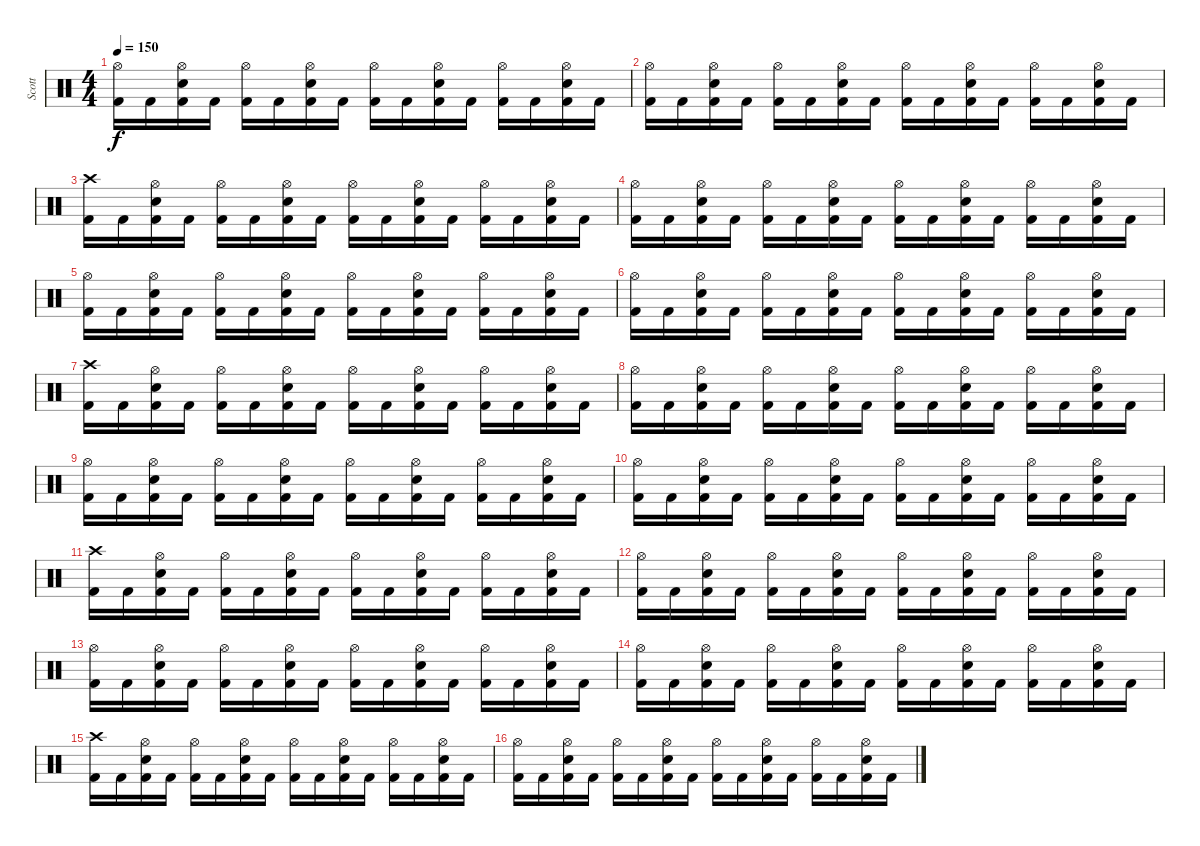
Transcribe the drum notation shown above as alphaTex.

\track ("Scott" "Scott") {instrument percussion}
\staff {score}
\articulation defaults
\ts (4 4)
\tempo 150
\clef neutral
\ks c
("Hi-Hat (open)" "Kick (hit) 2").16{dy f} "Kick (hit) 2".16 ("Hi-Hat (open)" "Snare (hit) 2" "Kick (hit) 2").16 "Kick (hit) 2".16 ("Hi-Hat (open)" "Kick (hit) 2").16 "Kick (hit) 2".16 ("Hi-Hat (open)" "Snare (hit) 2" "Kick (hit) 2").16 "Kick (hit) 2".16 ("Hi-Hat (open)" "Kick (hit) 2").16 "Kick (hit) 2".16 ("Hi-Hat (open)" "Snare (hit) 2" "Kick (hit) 2").16 "Kick (hit) 2".16 ("Hi-Hat (open)" "Kick (hit) 2").16 "Kick (hit) 2".16 ("Hi-Hat (open)" "Snare (hit) 2" "Kick (hit) 2").16 "Kick (hit) 2".16 |
("Hi-Hat (open)" "Kick (hit) 2").16 "Kick (hit) 2".16 ("Hi-Hat (open)" "Snare (hit) 2" "Kick (hit) 2").16 "Kick (hit) 2".16 ("Hi-Hat (open)" "Kick (hit) 2").16 "Kick (hit) 2".16 ("Hi-Hat (open)" "Snare (hit) 2" "Kick (hit) 2").16 "Kick (hit) 2".16 ("Hi-Hat (open)" "Kick (hit) 2").16 "Kick (hit) 2".16 ("Hi-Hat (open)" "Snare (hit) 2" "Kick (hit) 2").16 "Kick (hit) 2".16 ("Hi-Hat (open)" "Kick (hit) 2").16 "Kick (hit) 2".16 ("Hi-Hat (open)" "Snare (hit) 2" "Kick (hit) 2").16 "Kick (hit) 2".16 |
("Crash high (hit)" "Kick (hit) 2").16 "Kick (hit) 2".16 ("Hi-Hat (open)" "Snare (hit) 2" "Kick (hit) 2").16 "Kick (hit) 2".16 ("Hi-Hat (open)" "Kick (hit) 2").16 "Kick (hit) 2".16 ("Hi-Hat (open)" "Snare (hit) 2" "Kick (hit) 2").16 "Kick (hit) 2".16 ("Hi-Hat (open)" "Kick (hit) 2").16 "Kick (hit) 2".16 ("Hi-Hat (open)" "Snare (hit) 2" "Kick (hit) 2").16 "Kick (hit) 2".16 ("Hi-Hat (open)" "Kick (hit) 2").16 "Kick (hit) 2".16 ("Hi-Hat (open)" "Snare (hit) 2" "Kick (hit) 2").16 "Kick (hit) 2".16 |
("Hi-Hat (open)" "Kick (hit) 2").16 "Kick (hit) 2".16 ("Hi-Hat (open)" "Snare (hit) 2" "Kick (hit) 2").16 "Kick (hit) 2".16 ("Hi-Hat (open)" "Kick (hit) 2").16 "Kick (hit) 2".16 ("Hi-Hat (open)" "Snare (hit) 2" "Kick (hit) 2").16 "Kick (hit) 2".16 ("Hi-Hat (open)" "Kick (hit) 2").16 "Kick (hit) 2".16 ("Hi-Hat (open)" "Snare (hit) 2" "Kick (hit) 2").16 "Kick (hit) 2".16 ("Hi-Hat (open)" "Kick (hit) 2").16 "Kick (hit) 2".16 ("Hi-Hat (open)" "Snare (hit) 2" "Kick (hit) 2").16 "Kick (hit) 2".16 |
("Hi-Hat (open)" "Kick (hit) 2").16 "Kick (hit) 2".16 ("Hi-Hat (open)" "Snare (hit) 2" "Kick (hit) 2").16 "Kick (hit) 2".16 ("Hi-Hat (open)" "Kick (hit) 2").16 "Kick (hit) 2".16 ("Hi-Hat (open)" "Snare (hit) 2" "Kick (hit) 2").16 "Kick (hit) 2".16 ("Hi-Hat (open)" "Kick (hit) 2").16 "Kick (hit) 2".16 ("Hi-Hat (open)" "Snare (hit) 2" "Kick (hit) 2").16 "Kick (hit) 2".16 ("Hi-Hat (open)" "Kick (hit) 2").16 "Kick (hit) 2".16 ("Hi-Hat (open)" "Snare (hit) 2" "Kick (hit) 2").16 "Kick (hit) 2".16 |
("Hi-Hat (open)" "Kick (hit) 2").16 "Kick (hit) 2".16 ("Hi-Hat (open)" "Snare (hit) 2" "Kick (hit) 2").16 "Kick (hit) 2".16 ("Hi-Hat (open)" "Kick (hit) 2").16 "Kick (hit) 2".16 ("Hi-Hat (open)" "Snare (hit) 2" "Kick (hit) 2").16 "Kick (hit) 2".16 ("Hi-Hat (open)" "Kick (hit) 2").16 "Kick (hit) 2".16 ("Hi-Hat (open)" "Snare (hit) 2" "Kick (hit) 2").16 "Kick (hit) 2".16 ("Hi-Hat (open)" "Kick (hit) 2").16 "Kick (hit) 2".16 ("Hi-Hat (open)" "Snare (hit) 2" "Kick (hit) 2").16 "Kick (hit) 2".16 |
("Crash high (hit)" "Kick (hit) 2").16 "Kick (hit) 2".16 ("Hi-Hat (open)" "Snare (hit) 2" "Kick (hit) 2").16 "Kick (hit) 2".16 ("Hi-Hat (open)" "Kick (hit) 2").16 "Kick (hit) 2".16 ("Hi-Hat (open)" "Snare (hit) 2" "Kick (hit) 2").16 "Kick (hit) 2".16 ("Hi-Hat (open)" "Kick (hit) 2").16 "Kick (hit) 2".16 ("Hi-Hat (open)" "Snare (hit) 2" "Kick (hit) 2").16 "Kick (hit) 2".16 ("Hi-Hat (open)" "Kick (hit) 2").16 "Kick (hit) 2".16 ("Hi-Hat (open)" "Snare (hit) 2" "Kick (hit) 2").16 "Kick (hit) 2".16 |
("Hi-Hat (open)" "Kick (hit) 2").16 "Kick (hit) 2".16 ("Hi-Hat (open)" "Snare (hit) 2" "Kick (hit) 2").16 "Kick (hit) 2".16 ("Hi-Hat (open)" "Kick (hit) 2").16 "Kick (hit) 2".16 ("Hi-Hat (open)" "Snare (hit) 2" "Kick (hit) 2").16 "Kick (hit) 2".16 ("Hi-Hat (open)" "Kick (hit) 2").16 "Kick (hit) 2".16 ("Hi-Hat (open)" "Snare (hit) 2" "Kick (hit) 2").16 "Kick (hit) 2".16 ("Hi-Hat (open)" "Kick (hit) 2").16 "Kick (hit) 2".16 ("Hi-Hat (open)" "Snare (hit) 2" "Kick (hit) 2").16 "Kick (hit) 2".16 |
("Hi-Hat (open)" "Kick (hit) 2").16 "Kick (hit) 2".16 ("Hi-Hat (open)" "Snare (hit) 2" "Kick (hit) 2").16 "Kick (hit) 2".16 ("Hi-Hat (open)" "Kick (hit) 2").16 "Kick (hit) 2".16 ("Hi-Hat (open)" "Snare (hit) 2" "Kick (hit) 2").16 "Kick (hit) 2".16 ("Hi-Hat (open)" "Kick (hit) 2").16 "Kick (hit) 2".16 ("Hi-Hat (open)" "Snare (hit) 2" "Kick (hit) 2").16 "Kick (hit) 2".16 ("Hi-Hat (open)" "Kick (hit) 2").16 "Kick (hit) 2".16 ("Hi-Hat (open)" "Snare (hit) 2" "Kick (hit) 2").16 "Kick (hit) 2".16 |
("Hi-Hat (open)" "Kick (hit) 2").16 "Kick (hit) 2".16 ("Hi-Hat (open)" "Snare (hit) 2" "Kick (hit) 2").16 "Kick (hit) 2".16 ("Hi-Hat (open)" "Kick (hit) 2").16 "Kick (hit) 2".16 ("Hi-Hat (open)" "Snare (hit) 2" "Kick (hit) 2").16 "Kick (hit) 2".16 ("Hi-Hat (open)" "Kick (hit) 2").16 "Kick (hit) 2".16 ("Hi-Hat (open)" "Snare (hit) 2" "Kick (hit) 2").16 "Kick (hit) 2".16 ("Hi-Hat (open)" "Kick (hit) 2").16 "Kick (hit) 2".16 ("Hi-Hat (open)" "Snare (hit) 2" "Kick (hit) 2").16 "Kick (hit) 2".16 |
("Crash high (hit)" "Kick (hit) 2").16 "Kick (hit) 2".16 ("Hi-Hat (open)" "Snare (hit) 2" "Kick (hit) 2").16 "Kick (hit) 2".16 ("Hi-Hat (open)" "Kick (hit) 2").16 "Kick (hit) 2".16 ("Hi-Hat (open)" "Snare (hit) 2" "Kick (hit) 2").16 "Kick (hit) 2".16 ("Hi-Hat (open)" "Kick (hit) 2").16 "Kick (hit) 2".16 ("Hi-Hat (open)" "Snare (hit) 2" "Kick (hit) 2").16 "Kick (hit) 2".16 ("Hi-Hat (open)" "Kick (hit) 2").16 "Kick (hit) 2".16 ("Hi-Hat (open)" "Snare (hit) 2" "Kick (hit) 2").16 "Kick (hit) 2".16 |
("Hi-Hat (open)" "Kick (hit) 2").16 "Kick (hit) 2".16 ("Hi-Hat (open)" "Snare (hit) 2" "Kick (hit) 2").16 "Kick (hit) 2".16 ("Hi-Hat (open)" "Kick (hit) 2").16 "Kick (hit) 2".16 ("Hi-Hat (open)" "Snare (hit) 2" "Kick (hit) 2").16 "Kick (hit) 2".16 ("Hi-Hat (open)" "Kick (hit) 2").16 "Kick (hit) 2".16 ("Hi-Hat (open)" "Snare (hit) 2" "Kick (hit) 2").16 "Kick (hit) 2".16 ("Hi-Hat (open)" "Kick (hit) 2").16 "Kick (hit) 2".16 ("Hi-Hat (open)" "Snare (hit) 2" "Kick (hit) 2").16 "Kick (hit) 2".16 |
("Hi-Hat (open)" "Kick (hit) 2").16 "Kick (hit) 2".16 ("Hi-Hat (open)" "Snare (hit) 2" "Kick (hit) 2").16 "Kick (hit) 2".16 ("Hi-Hat (open)" "Kick (hit) 2").16 "Kick (hit) 2".16 ("Hi-Hat (open)" "Snare (hit) 2" "Kick (hit) 2").16 "Kick (hit) 2".16 ("Hi-Hat (open)" "Kick (hit) 2").16 "Kick (hit) 2".16 ("Hi-Hat (open)" "Snare (hit) 2" "Kick (hit) 2").16 "Kick (hit) 2".16 ("Hi-Hat (open)" "Kick (hit) 2").16 "Kick (hit) 2".16 ("Hi-Hat (open)" "Snare (hit) 2" "Kick (hit) 2").16 "Kick (hit) 2".16 |
("Hi-Hat (open)" "Kick (hit) 2").16 "Kick (hit) 2".16 ("Hi-Hat (open)" "Snare (hit) 2" "Kick (hit) 2").16 "Kick (hit) 2".16 ("Hi-Hat (open)" "Kick (hit) 2").16 "Kick (hit) 2".16 ("Hi-Hat (open)" "Snare (hit) 2" "Kick (hit) 2").16 "Kick (hit) 2".16 ("Hi-Hat (open)" "Kick (hit) 2").16 "Kick (hit) 2".16 ("Hi-Hat (open)" "Snare (hit) 2" "Kick (hit) 2").16 "Kick (hit) 2".16 ("Hi-Hat (open)" "Kick (hit) 2").16 "Kick (hit) 2".16 ("Hi-Hat (open)" "Snare (hit) 2" "Kick (hit) 2").16 "Kick (hit) 2".16 |
("Crash high (hit)" "Kick (hit) 2").16 "Kick (hit) 2".16 ("Hi-Hat (open)" "Snare (hit) 2" "Kick (hit) 2").16 "Kick (hit) 2".16 ("Hi-Hat (open)" "Kick (hit) 2").16 "Kick (hit) 2".16 ("Hi-Hat (open)" "Snare (hit) 2" "Kick (hit) 2").16 "Kick (hit) 2".16 ("Hi-Hat (open)" "Kick (hit) 2").16 "Kick (hit) 2".16 ("Hi-Hat (open)" "Snare (hit) 2" "Kick (hit) 2").16 "Kick (hit) 2".16 ("Hi-Hat (open)" "Kick (hit) 2").16 "Kick (hit) 2".16 ("Hi-Hat (open)" "Snare (hit) 2" "Kick (hit) 2").16 "Kick (hit) 2".16 |
("Hi-Hat (open)" "Kick (hit) 2").16 "Kick (hit) 2".16 ("Hi-Hat (open)" "Snare (hit) 2" "Kick (hit) 2").16 "Kick (hit) 2".16 ("Hi-Hat (open)" "Kick (hit) 2").16 "Kick (hit) 2".16 ("Hi-Hat (open)" "Snare (hit) 2" "Kick (hit) 2").16 "Kick (hit) 2".16 ("Hi-Hat (open)" "Kick (hit) 2").16 "Kick (hit) 2".16 ("Hi-Hat (open)" "Snare (hit) 2" "Kick (hit) 2").16 "Kick (hit) 2".16 ("Hi-Hat (open)" "Kick (hit) 2").16 "Kick (hit) 2".16 ("Hi-Hat (open)" "Snare (hit) 2" "Kick (hit) 2").16 "Kick (hit) 2".16
